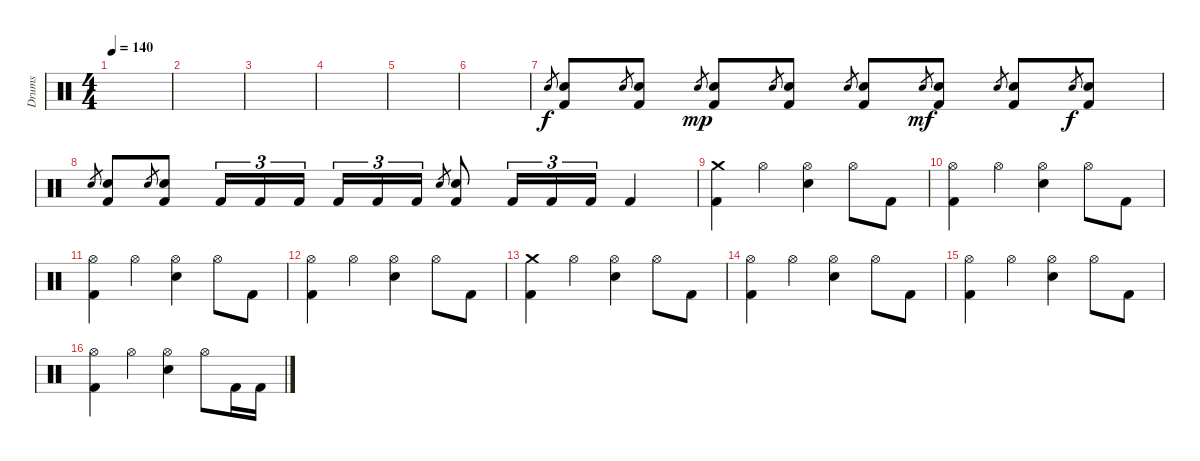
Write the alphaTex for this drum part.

\track ("Drums" "Drums") {instrument percussion}
\staff {score}
\articulation defaults
\ts (4 4)
\tempo 140
\clef neutral
\ks c
|
|
|
|
|
|
"Electric Snare (hit)".8{gr} ("Electric Snare (hit)" "Kick (hit) 2").8 "Electric Snare (hit)".8{gr} ("Electric Snare (hit)" "Kick (hit) 2").8 "Electric Snare (hit)".8{gr dy mp} ("Electric Snare (hit)" "Kick (hit) 2").8 "Electric Snare (hit)".8{gr} ("Electric Snare (hit)" "Kick (hit) 2").8 "Electric Snare (hit)".8{gr} ("Electric Snare (hit)" "Kick (hit) 2").8 "Electric Snare (hit)".8{gr dy mf} ("Electric Snare (hit)" "Kick (hit) 2").8 "Electric Snare (hit)".8{gr} ("Electric Snare (hit)" "Kick (hit) 2").8 "Electric Snare (hit)".8{gr dy f} ("Electric Snare (hit)" "Kick (hit) 2").8 |
"Electric Snare (hit)".8{gr} ("Electric Snare (hit)" "Kick (hit) 2").8 "Electric Snare (hit)".8{gr} ("Electric Snare (hit)" "Kick (hit) 2").8 "Kick (hit) 2".16{tu (3 2)} "Kick (hit) 2".16{tu (3 2)} "Kick (hit) 2".16{tu (3 2)} "Kick (hit) 2".16{tu (3 2)} "Kick (hit) 2".16{tu (3 2)} "Kick (hit) 2".16{tu (3 2)} "Electric Snare (hit)".8{gr} ("Electric Snare (hit)" "Kick (hit) 2").8 "Kick (hit) 2".16{tu (3 2)} "Kick (hit) 2".16{tu (3 2)} "Kick (hit) 2".16{tu (3 2)} "Kick (hit) 2".4 |
("Crash medium (hit)" "Kick (hit) 2").4 "Hi-Hat (open)".4 ("Hi-Hat (open)" "Electric Snare (hit)").4 "Hi-Hat (open)".8 "Kick (hit) 2".8 |
("Hi-Hat (open)" "Kick (hit) 2").4 "Hi-Hat (open)".4 ("Hi-Hat (open)" "Electric Snare (hit)").4 "Hi-Hat (open)".8 "Kick (hit) 2".8 |
("Hi-Hat (open)" "Kick (hit) 2").4 "Hi-Hat (open)".4 ("Hi-Hat (open)" "Electric Snare (hit)").4 "Hi-Hat (open)".8 "Kick (hit) 2".8 |
("Hi-Hat (open)" "Kick (hit) 2").4 "Hi-Hat (open)".4 ("Hi-Hat (open)" "Electric Snare (hit)").4 "Hi-Hat (open)".8 "Kick (hit) 2".8 |
("Crash medium (hit)" "Kick (hit) 2").4 "Hi-Hat (open)".4 ("Hi-Hat (open)" "Electric Snare (hit)").4 "Hi-Hat (open)".8 "Kick (hit) 2".8 |
("Hi-Hat (open)" "Kick (hit) 2").4 "Hi-Hat (open)".4 ("Hi-Hat (open)" "Electric Snare (hit)").4 "Hi-Hat (open)".8 "Kick (hit) 2".8 |
("Hi-Hat (open)" "Kick (hit) 2").4 "Hi-Hat (open)".4 ("Hi-Hat (open)" "Electric Snare (hit)").4 "Hi-Hat (open)".8 "Kick (hit) 2".8 |
("Hi-Hat (open)" "Kick (hit) 2").4 "Hi-Hat (open)".4 ("Hi-Hat (open)" "Electric Snare (hit)").4 "Hi-Hat (open)".8 "Kick (hit) 2".16 "Kick (hit) 2".16
